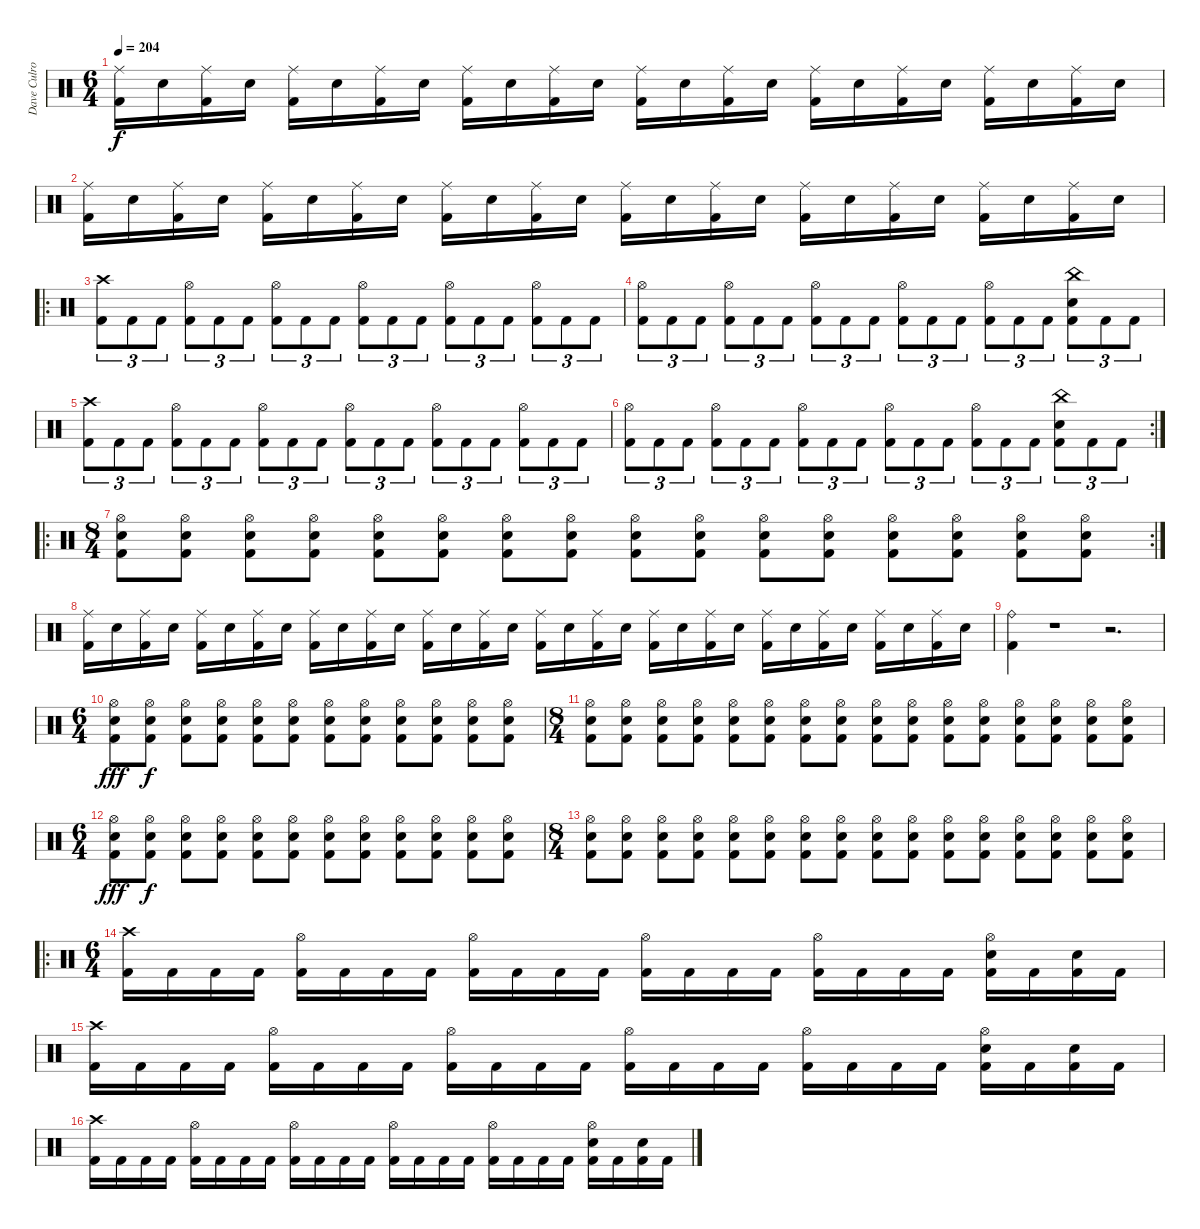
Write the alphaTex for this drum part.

\track ("Dave Culross" "Dave Culro") {instrument percussion}
\staff {score}
\articulation defaults
\ts (6 4)
\tempo 204
\clef neutral
\ks c
("Ride (middle)" "Kick (hit) 2").16{dy f} "Electric Snare (hit)".16 ("Ride (middle)" "Kick (hit) 2").16 "Electric Snare (hit)".16 ("Ride (middle)" "Kick (hit) 2").16 "Electric Snare (hit)".16 ("Ride (middle)" "Kick (hit) 2").16 "Electric Snare (hit)".16 ("Ride (middle)" "Kick (hit) 2").16 "Electric Snare (hit)".16 ("Ride (middle)" "Kick (hit) 2").16 "Electric Snare (hit)".16 ("Ride (middle)" "Kick (hit) 2").16 "Electric Snare (hit)".16 ("Ride (middle)" "Kick (hit) 2").16 "Electric Snare (hit)".16 ("Ride (middle)" "Kick (hit) 2").16 "Electric Snare (hit)".16 ("Ride (middle)" "Kick (hit) 2").16 "Electric Snare (hit)".16 ("Ride (middle)" "Kick (hit) 2").16 "Electric Snare (hit)".16 ("Ride (middle)" "Kick (hit) 2").16 "Electric Snare (hit)".16 |
("Ride (middle)" "Kick (hit) 2").16 "Electric Snare (hit)".16 ("Ride (middle)" "Kick (hit) 2").16 "Electric Snare (hit)".16 ("Ride (middle)" "Kick (hit) 2").16 "Electric Snare (hit)".16 ("Ride (middle)" "Kick (hit) 2").16 "Electric Snare (hit)".16 ("Ride (middle)" "Kick (hit) 2").16 "Electric Snare (hit)".16 ("Ride (middle)" "Kick (hit) 2").16 "Electric Snare (hit)".16 ("Ride (middle)" "Kick (hit) 2").16 "Electric Snare (hit)".16 ("Ride (middle)" "Kick (hit) 2").16 "Electric Snare (hit)".16 ("Ride (middle)" "Kick (hit) 2").16 "Electric Snare (hit)".16 ("Ride (middle)" "Kick (hit) 2").16 "Electric Snare (hit)".16 ("Ride (middle)" "Kick (hit) 2").16 "Electric Snare (hit)".16 ("Ride (middle)" "Kick (hit) 2").16 "Electric Snare (hit)".16 |
\ro
("Crash high (hit)" "Kick (hit) 2").8{tu (3 2)} "Kick (hit) 2".8{tu (3 2)} "Kick (hit) 2".8{tu (3 2)} ("Hi-Hat (open)" "Kick (hit) 2").8{tu (3 2)} "Kick (hit) 2".8{tu (3 2)} "Kick (hit) 2".8{tu (3 2)} ("Hi-Hat (open)" "Kick (hit) 2").8{tu (3 2)} "Kick (hit) 2".8{tu (3 2)} "Kick (hit) 2".8{tu (3 2)} ("Hi-Hat (open)" "Kick (hit) 2").8{tu (3 2)} "Kick (hit) 2".8{tu (3 2)} "Kick (hit) 2".8{tu (3 2)} ("Hi-Hat (open)" "Kick (hit) 2").8{tu (3 2)} "Kick (hit) 2".8{tu (3 2)} "Kick (hit) 2".8{tu (3 2)} ("Hi-Hat (open)" "Kick (hit) 2").8{tu (3 2)} "Kick (hit) 2".8{tu (3 2)} "Kick (hit) 2".8{tu (3 2)} |
("Hi-Hat (open)" "Kick (hit) 2").8{tu (3 2)} "Kick (hit) 2".8{tu (3 2)} "Kick (hit) 2".8{tu (3 2)} ("Hi-Hat (open)" "Kick (hit) 2").8{tu (3 2)} "Kick (hit) 2".8{tu (3 2)} "Kick (hit) 2".8{tu (3 2)} ("Hi-Hat (open)" "Kick (hit) 2").8{tu (3 2)} "Kick (hit) 2".8{tu (3 2)} "Kick (hit) 2".8{tu (3 2)} ("Hi-Hat (open)" "Kick (hit) 2").8{tu (3 2)} "Kick (hit) 2".8{tu (3 2)} "Kick (hit) 2".8{tu (3 2)} ("Hi-Hat (open)" "Kick (hit) 2").8{tu (3 2)} "Kick (hit) 2".8{tu (3 2)} "Kick (hit) 2".8{tu (3 2)} ("China (hit)" "Electric Snare (hit)" "Kick (hit) 2").8{tu (3 2)} "Kick (hit) 2".8{tu (3 2)} "Kick (hit) 2".8{tu (3 2)} |
("Crash high (hit)" "Kick (hit) 2").8{tu (3 2)} "Kick (hit) 2".8{tu (3 2)} "Kick (hit) 2".8{tu (3 2)} ("Hi-Hat (open)" "Kick (hit) 2").8{tu (3 2)} "Kick (hit) 2".8{tu (3 2)} "Kick (hit) 2".8{tu (3 2)} ("Hi-Hat (open)" "Kick (hit) 2").8{tu (3 2)} "Kick (hit) 2".8{tu (3 2)} "Kick (hit) 2".8{tu (3 2)} ("Hi-Hat (open)" "Kick (hit) 2").8{tu (3 2)} "Kick (hit) 2".8{tu (3 2)} "Kick (hit) 2".8{tu (3 2)} ("Hi-Hat (open)" "Kick (hit) 2").8{tu (3 2)} "Kick (hit) 2".8{tu (3 2)} "Kick (hit) 2".8{tu (3 2)} ("Hi-Hat (open)" "Kick (hit) 2").8{tu (3 2)} "Kick (hit) 2".8{tu (3 2)} "Kick (hit) 2".8{tu (3 2)} |
\rc 2
("Hi-Hat (open)" "Kick (hit) 2").8{tu (3 2)} "Kick (hit) 2".8{tu (3 2)} "Kick (hit) 2".8{tu (3 2)} ("Hi-Hat (open)" "Kick (hit) 2").8{tu (3 2)} "Kick (hit) 2".8{tu (3 2)} "Kick (hit) 2".8{tu (3 2)} ("Hi-Hat (open)" "Kick (hit) 2").8{tu (3 2)} "Kick (hit) 2".8{tu (3 2)} "Kick (hit) 2".8{tu (3 2)} ("Hi-Hat (open)" "Kick (hit) 2").8{tu (3 2)} "Kick (hit) 2".8{tu (3 2)} "Kick (hit) 2".8{tu (3 2)} ("Hi-Hat (open)" "Kick (hit) 2").8{tu (3 2)} "Kick (hit) 2".8{tu (3 2)} "Kick (hit) 2".8{tu (3 2)} ("China (hit)" "Electric Snare (hit)" "Kick (hit) 2").8{tu (3 2)} "Kick (hit) 2".8{tu (3 2)} "Kick (hit) 2".8{tu (3 2)} |
\ro
\rc 2
\ts (8 4)
("Hi-Hat (open)" "Electric Snare (hit)" "Kick (hit) 2").8 ("Hi-Hat (open)" "Electric Snare (hit)" "Kick (hit) 2").8 ("Hi-Hat (open)" "Electric Snare (hit)" "Kick (hit) 2").8 ("Hi-Hat (open)" "Electric Snare (hit)" "Kick (hit) 2").8 ("Hi-Hat (open)" "Electric Snare (hit)" "Kick (hit) 2").8 ("Hi-Hat (open)" "Electric Snare (hit)" "Kick (hit) 2").8 ("Hi-Hat (open)" "Electric Snare (hit)" "Kick (hit) 2").8 ("Hi-Hat (open)" "Electric Snare (hit)" "Kick (hit) 2").8 ("Hi-Hat (open)" "Electric Snare (hit)" "Kick (hit) 2").8 ("Hi-Hat (open)" "Electric Snare (hit)" "Kick (hit) 2").8 ("Hi-Hat (open)" "Electric Snare (hit)" "Kick (hit) 2").8 ("Hi-Hat (open)" "Electric Snare (hit)" "Kick (hit) 2").8 ("Hi-Hat (open)" "Electric Snare (hit)" "Kick (hit) 2").8 ("Hi-Hat (open)" "Electric Snare (hit)" "Kick (hit) 2").8 ("Hi-Hat (open)" "Electric Snare (hit)" "Kick (hit) 2").8 ("Hi-Hat (open)" "Electric Snare (hit)" "Kick (hit) 2").8 |
("Ride (middle)" "Kick (hit) 2").16 "Electric Snare (hit)".16 ("Ride (middle)" "Kick (hit) 2").16 "Electric Snare (hit)".16 ("Ride (middle)" "Kick (hit) 2").16 "Electric Snare (hit)".16 ("Ride (middle)" "Kick (hit) 2").16 "Electric Snare (hit)".16 ("Ride (middle)" "Kick (hit) 2").16 "Electric Snare (hit)".16 ("Ride (middle)" "Kick (hit) 2").16 "Electric Snare (hit)".16 ("Ride (middle)" "Kick (hit) 2").16 "Electric Snare (hit)".16 ("Ride (middle)" "Kick (hit) 2").16 "Electric Snare (hit)".16 ("Ride (middle)" "Kick (hit) 2").16 "Electric Snare (hit)".16 ("Ride (middle)" "Kick (hit) 2").16 "Electric Snare (hit)".16 ("Ride (middle)" "Kick (hit) 2").16 "Electric Snare (hit)".16 ("Ride (middle)" "Kick (hit) 2").16 "Electric Snare (hit)".16 ("Ride (middle)" "Kick (hit) 2").16 "Electric Snare (hit)".16 ("Ride (middle)" "Kick (hit) 2").16 "Electric Snare (hit)".16 ("Ride (middle)" "Kick (hit) 2").16 "Electric Snare (hit)".16 ("Ride (middle)" "Kick (hit) 2").16 "Electric Snare (hit)".16 |
("Ride (bell)" "Kick (hit) 2").4 r.1 r.2{d} |
\ts (6 4)
("Hi-Hat (open)" "Electric Snare (hit)" "Kick (hit) 2").8{dy fff} ("Hi-Hat (open)" "Electric Snare (hit)" "Kick (hit) 2").8{dy f} ("Hi-Hat (open)" "Electric Snare (hit)" "Kick (hit) 2").8 ("Hi-Hat (open)" "Electric Snare (hit)" "Kick (hit) 2").8 ("Hi-Hat (open)" "Electric Snare (hit)" "Kick (hit) 2").8 ("Hi-Hat (open)" "Electric Snare (hit)" "Kick (hit) 2").8 ("Hi-Hat (open)" "Electric Snare (hit)" "Kick (hit) 2").8 ("Hi-Hat (open)" "Electric Snare (hit)" "Kick (hit) 2").8 ("Hi-Hat (open)" "Electric Snare (hit)" "Kick (hit) 2").8 ("Hi-Hat (open)" "Electric Snare (hit)" "Kick (hit) 2").8 ("Hi-Hat (open)" "Electric Snare (hit)" "Kick (hit) 2").8 ("Hi-Hat (open)" "Electric Snare (hit)" "Kick (hit) 2").8 |
\ts (8 4)
("Hi-Hat (open)" "Electric Snare (hit)" "Kick (hit) 2").8 ("Hi-Hat (open)" "Electric Snare (hit)" "Kick (hit) 2").8 ("Hi-Hat (open)" "Electric Snare (hit)" "Kick (hit) 2").8 ("Hi-Hat (open)" "Electric Snare (hit)" "Kick (hit) 2").8 ("Hi-Hat (open)" "Electric Snare (hit)" "Kick (hit) 2").8 ("Hi-Hat (open)" "Electric Snare (hit)" "Kick (hit) 2").8 ("Hi-Hat (open)" "Electric Snare (hit)" "Kick (hit) 2").8 ("Hi-Hat (open)" "Electric Snare (hit)" "Kick (hit) 2").8 ("Hi-Hat (open)" "Electric Snare (hit)" "Kick (hit) 2").8 ("Hi-Hat (open)" "Electric Snare (hit)" "Kick (hit) 2").8 ("Hi-Hat (open)" "Electric Snare (hit)" "Kick (hit) 2").8 ("Hi-Hat (open)" "Electric Snare (hit)" "Kick (hit) 2").8 ("Hi-Hat (open)" "Electric Snare (hit)" "Kick (hit) 2").8 ("Hi-Hat (open)" "Electric Snare (hit)" "Kick (hit) 2").8 ("Hi-Hat (open)" "Electric Snare (hit)" "Kick (hit) 2").8 ("Hi-Hat (open)" "Electric Snare (hit)" "Kick (hit) 2").8 |
\ts (6 4)
("Hi-Hat (open)" "Electric Snare (hit)" "Kick (hit) 2").8{dy fff} ("Hi-Hat (open)" "Electric Snare (hit)" "Kick (hit) 2").8{dy f} ("Hi-Hat (open)" "Electric Snare (hit)" "Kick (hit) 2").8 ("Hi-Hat (open)" "Electric Snare (hit)" "Kick (hit) 2").8 ("Hi-Hat (open)" "Electric Snare (hit)" "Kick (hit) 2").8 ("Hi-Hat (open)" "Electric Snare (hit)" "Kick (hit) 2").8 ("Hi-Hat (open)" "Electric Snare (hit)" "Kick (hit) 2").8 ("Hi-Hat (open)" "Electric Snare (hit)" "Kick (hit) 2").8 ("Hi-Hat (open)" "Electric Snare (hit)" "Kick (hit) 2").8 ("Hi-Hat (open)" "Electric Snare (hit)" "Kick (hit) 2").8 ("Hi-Hat (open)" "Electric Snare (hit)" "Kick (hit) 2").8 ("Hi-Hat (open)" "Electric Snare (hit)" "Kick (hit) 2").8 |
\ts (8 4)
("Hi-Hat (open)" "Electric Snare (hit)" "Kick (hit) 2").8 ("Hi-Hat (open)" "Electric Snare (hit)" "Kick (hit) 2").8 ("Hi-Hat (open)" "Electric Snare (hit)" "Kick (hit) 2").8 ("Hi-Hat (open)" "Electric Snare (hit)" "Kick (hit) 2").8 ("Hi-Hat (open)" "Electric Snare (hit)" "Kick (hit) 2").8 ("Hi-Hat (open)" "Electric Snare (hit)" "Kick (hit) 2").8 ("Hi-Hat (open)" "Electric Snare (hit)" "Kick (hit) 2").8 ("Hi-Hat (open)" "Electric Snare (hit)" "Kick (hit) 2").8 ("Hi-Hat (open)" "Electric Snare (hit)" "Kick (hit) 2").8 ("Hi-Hat (open)" "Electric Snare (hit)" "Kick (hit) 2").8 ("Hi-Hat (open)" "Electric Snare (hit)" "Kick (hit) 2").8 ("Hi-Hat (open)" "Electric Snare (hit)" "Kick (hit) 2").8 ("Hi-Hat (open)" "Electric Snare (hit)" "Kick (hit) 2").8 ("Hi-Hat (open)" "Electric Snare (hit)" "Kick (hit) 2").8 ("Hi-Hat (open)" "Electric Snare (hit)" "Kick (hit) 2").8 ("Hi-Hat (open)" "Electric Snare (hit)" "Kick (hit) 2").8 |
\ro
\ts (6 4)
("Crash high (hit)" "Kick (hit) 2").16 "Kick (hit) 2".16 "Kick (hit) 2".16 "Kick (hit) 2".16 ("Hi-Hat (open)" "Kick (hit) 2").16 "Kick (hit) 2".16 "Kick (hit) 2".16 "Kick (hit) 2".16 ("Hi-Hat (open)" "Kick (hit) 2").16 "Kick (hit) 2".16 "Kick (hit) 2".16 "Kick (hit) 2".16 ("Hi-Hat (open)" "Kick (hit) 2").16 "Kick (hit) 2".16 "Kick (hit) 2".16 "Kick (hit) 2".16 ("Hi-Hat (open)" "Kick (hit) 2").16 "Kick (hit) 2".16 "Kick (hit) 2".16 "Kick (hit) 2".16 ("Hi-Hat (open)" "Electric Snare (hit)" "Kick (hit) 2").16 "Kick (hit) 2".16 ("Electric Snare (hit)" "Kick (hit) 2").16 "Kick (hit) 2".16 |
("Crash high (hit)" "Kick (hit) 2").16 "Kick (hit) 2".16 "Kick (hit) 2".16 "Kick (hit) 2".16 ("Hi-Hat (open)" "Kick (hit) 2").16 "Kick (hit) 2".16 "Kick (hit) 2".16 "Kick (hit) 2".16 ("Hi-Hat (open)" "Kick (hit) 2").16 "Kick (hit) 2".16 "Kick (hit) 2".16 "Kick (hit) 2".16 ("Hi-Hat (open)" "Kick (hit) 2").16 "Kick (hit) 2".16 "Kick (hit) 2".16 "Kick (hit) 2".16 ("Hi-Hat (open)" "Kick (hit) 2").16 "Kick (hit) 2".16 "Kick (hit) 2".16 "Kick (hit) 2".16 ("Hi-Hat (open)" "Electric Snare (hit)" "Kick (hit) 2").16 "Kick (hit) 2".16 ("Electric Snare (hit)" "Kick (hit) 2").16 "Kick (hit) 2".16 |
("Crash high (hit)" "Kick (hit) 2").16 "Kick (hit) 2".16 "Kick (hit) 2".16 "Kick (hit) 2".16 ("Hi-Hat (open)" "Kick (hit) 2").16 "Kick (hit) 2".16 "Kick (hit) 2".16 "Kick (hit) 2".16 ("Hi-Hat (open)" "Kick (hit) 2").16 "Kick (hit) 2".16 "Kick (hit) 2".16 "Kick (hit) 2".16 ("Hi-Hat (open)" "Kick (hit) 2").16 "Kick (hit) 2".16 "Kick (hit) 2".16 "Kick (hit) 2".16 ("Hi-Hat (open)" "Kick (hit) 2").16 "Kick (hit) 2".16 "Kick (hit) 2".16 "Kick (hit) 2".16 ("Hi-Hat (open)" "Electric Snare (hit)" "Kick (hit) 2").16 "Kick (hit) 2".16 ("Electric Snare (hit)" "Kick (hit) 2").16 "Kick (hit) 2".16
